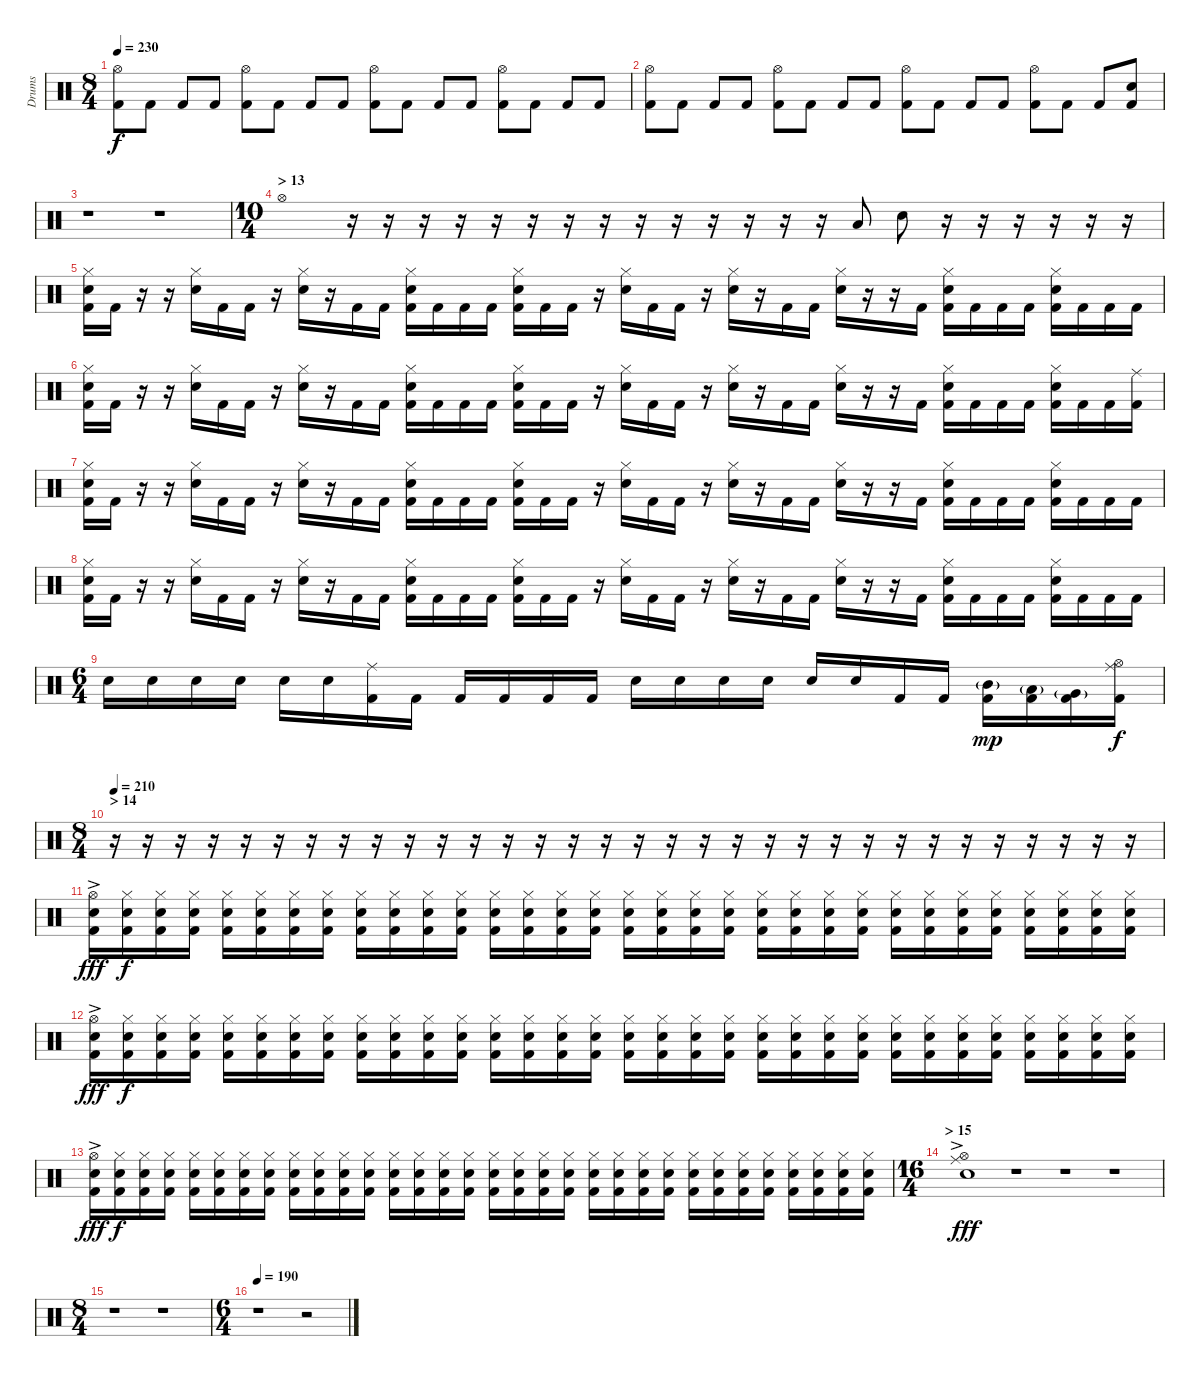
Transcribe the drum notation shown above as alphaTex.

\track ("Drums" "Drums") {instrument percussion}
\staff {score}
\articulation defaults
\ts (8 4)
\tempo 230
\clef neutral
\ks c
("Hi-Hat (open)" "Kick (hit) 2").8{dy f} "Kick (hit) 2".8 "Kick (hit) 2".8 "Kick (hit) 2".8 ("Hi-Hat (open)" "Kick (hit) 2").8 "Kick (hit) 2".8 "Kick (hit) 2".8 "Kick (hit) 2".8 ("Hi-Hat (open)" "Kick (hit) 2").8 "Kick (hit) 2".8 "Kick (hit) 2".8 "Kick (hit) 2".8 ("Hi-Hat (open)" "Kick (hit) 2").8 "Kick (hit) 2".8 "Kick (hit) 2".8 "Kick (hit) 2".8 |
("Hi-Hat (open)" "Kick (hit) 2").8 "Kick (hit) 2".8 "Kick (hit) 2".8 "Kick (hit) 2".8 ("Hi-Hat (open)" "Kick (hit) 2").8 "Kick (hit) 2".8 "Kick (hit) 2".8 "Kick (hit) 2".8 ("Hi-Hat (open)" "Kick (hit) 2").8 "Kick (hit) 2".8 "Kick (hit) 2".8 "Kick (hit) 2".8 ("Hi-Hat (open)" "Kick (hit) 2").8 "Kick (hit) 2".8 "Kick (hit) 2".8 ("Electric Snare (hit)" "Kick (hit) 2").8 |
r.1 r.1 |
\ts (10 4)
\section ("" "> 13")
"Hi-Hat (open)".1 r.16 r.16 r.16 r.16 r.16 r.16 r.16 r.16 r.16 r.16 r.16 r.16 r.16 r.16 "Low Tom (hit)".8 "Electric Snare (hit)".8 r.16 r.16 r.16 r.16 r.16 r.16 |
("Hi-Hat (closed)" "Electric Snare (hit)" "Kick (hit) 2").16 "Kick (hit) 2".16 r.16 r.16 ("Hi-Hat (closed)" "Electric Snare (hit)").16 "Kick (hit) 2".16 "Kick (hit) 2".16 r.16 ("Hi-Hat (closed)" "Electric Snare (hit)").16 r.16 "Kick (hit) 2".16 "Kick (hit) 2".16 ("Hi-Hat (closed)" "Electric Snare (hit)" "Kick (hit) 2").16 "Kick (hit) 2".16 "Kick (hit) 2".16 "Kick (hit) 2".16 ("Hi-Hat (closed)" "Electric Snare (hit)" "Kick (hit) 2").16 "Kick (hit) 2".16 "Kick (hit) 2".16 r.16 ("Hi-Hat (closed)" "Electric Snare (hit)").16 "Kick (hit) 2".16 "Kick (hit) 2".16 r.16 ("Hi-Hat (closed)" "Electric Snare (hit)").16 r.16 "Kick (hit) 2".16 "Kick (hit) 2".16 ("Hi-Hat (closed)" "Electric Snare (hit)").16 r.16 r.16 "Kick (hit) 2".16 ("Hi-Hat (closed)" "Electric Snare (hit)" "Kick (hit) 2").16 "Kick (hit) 2".16 "Kick (hit) 2".16 "Kick (hit) 2".16 ("Hi-Hat (closed)" "Electric Snare (hit)" "Kick (hit) 2").16 "Kick (hit) 2".16 "Kick (hit) 2".16 "Kick (hit) 2".16 |
("Hi-Hat (closed)" "Electric Snare (hit)" "Kick (hit) 2").16 "Kick (hit) 2".16 r.16 r.16 ("Hi-Hat (closed)" "Electric Snare (hit)").16 "Kick (hit) 2".16 "Kick (hit) 2".16 r.16 ("Hi-Hat (closed)" "Electric Snare (hit)").16 r.16 "Kick (hit) 2".16 "Kick (hit) 2".16 ("Hi-Hat (closed)" "Electric Snare (hit)" "Kick (hit) 2").16 "Kick (hit) 2".16 "Kick (hit) 2".16 "Kick (hit) 2".16 ("Hi-Hat (closed)" "Electric Snare (hit)" "Kick (hit) 2").16 "Kick (hit) 2".16 "Kick (hit) 2".16 r.16 ("Hi-Hat (closed)" "Electric Snare (hit)").16 "Kick (hit) 2".16 "Kick (hit) 2".16 r.16 ("Hi-Hat (closed)" "Electric Snare (hit)").16 r.16 "Kick (hit) 2".16 "Kick (hit) 2".16 ("Hi-Hat (closed)" "Electric Snare (hit)").16 r.16 r.16 "Kick (hit) 2".16 ("Hi-Hat (closed)" "Electric Snare (hit)" "Kick (hit) 2").16 "Kick (hit) 2".16 "Kick (hit) 2".16 "Kick (hit) 2".16 ("Hi-Hat (closed)" "Electric Snare (hit)" "Kick (hit) 2").16 "Kick (hit) 2".16 "Kick (hit) 2".16 ("Ride (middle)" "Kick (hit) 2").16 |
("Hi-Hat (closed)" "Electric Snare (hit)" "Kick (hit) 2").16 "Kick (hit) 2".16 r.16 r.16 ("Hi-Hat (closed)" "Electric Snare (hit)").16 "Kick (hit) 2".16 "Kick (hit) 2".16 r.16 ("Hi-Hat (closed)" "Electric Snare (hit)").16 r.16 "Kick (hit) 2".16 "Kick (hit) 2".16 ("Hi-Hat (closed)" "Electric Snare (hit)" "Kick (hit) 2").16 "Kick (hit) 2".16 "Kick (hit) 2".16 "Kick (hit) 2".16 ("Hi-Hat (closed)" "Electric Snare (hit)" "Kick (hit) 2").16 "Kick (hit) 2".16 "Kick (hit) 2".16 r.16 ("Hi-Hat (closed)" "Electric Snare (hit)").16 "Kick (hit) 2".16 "Kick (hit) 2".16 r.16 ("Hi-Hat (closed)" "Electric Snare (hit)").16 r.16 "Kick (hit) 2".16 "Kick (hit) 2".16 ("Hi-Hat (closed)" "Electric Snare (hit)").16 r.16 r.16 "Kick (hit) 2".16 ("Hi-Hat (closed)" "Electric Snare (hit)" "Kick (hit) 2").16 "Kick (hit) 2".16 "Kick (hit) 2".16 "Kick (hit) 2".16 ("Hi-Hat (closed)" "Electric Snare (hit)" "Kick (hit) 2").16 "Kick (hit) 2".16 "Kick (hit) 2".16 "Kick (hit) 2".16 |
("Hi-Hat (closed)" "Electric Snare (hit)" "Kick (hit) 2").16 "Kick (hit) 2".16 r.16 r.16 ("Hi-Hat (closed)" "Electric Snare (hit)").16 "Kick (hit) 2".16 "Kick (hit) 2".16 r.16 ("Hi-Hat (closed)" "Electric Snare (hit)").16 r.16 "Kick (hit) 2".16 "Kick (hit) 2".16 ("Hi-Hat (closed)" "Electric Snare (hit)" "Kick (hit) 2").16 "Kick (hit) 2".16 "Kick (hit) 2".16 "Kick (hit) 2".16 ("Hi-Hat (closed)" "Electric Snare (hit)" "Kick (hit) 2").16 "Kick (hit) 2".16 "Kick (hit) 2".16 r.16 ("Hi-Hat (closed)" "Electric Snare (hit)").16 "Kick (hit) 2".16 "Kick (hit) 2".16 r.16 ("Hi-Hat (closed)" "Electric Snare (hit)").16 r.16 "Kick (hit) 2".16 "Kick (hit) 2".16 ("Hi-Hat (closed)" "Electric Snare (hit)").16 r.16 r.16 "Kick (hit) 2".16 ("Hi-Hat (closed)" "Electric Snare (hit)" "Kick (hit) 2").16 "Kick (hit) 2".16 "Kick (hit) 2".16 "Kick (hit) 2".16 ("Hi-Hat (closed)" "Electric Snare (hit)" "Kick (hit) 2").16 "Kick (hit) 2".16 "Kick (hit) 2".16 "Kick (hit) 2".16 |
\ts (6 4)
"Electric Snare (hit)".16 "Electric Snare (hit)".16 "Electric Snare (hit)".16 "Electric Snare (hit)".16 "Electric Snare (hit)".16 "Electric Snare (hit)".16 ("Ride (middle)" "Kick (hit) 2").16 "Kick (hit) 2".16 "Kick (hit) 2".16 "Kick (hit) 2".16 "Kick (hit) 2".16 "Kick (hit) 2".16 "Electric Snare (hit)".16 "Electric Snare (hit)".16 "Electric Snare (hit)".16 "Electric Snare (hit)".16 "Electric Snare (hit)".16 "Electric Snare (hit)".16 "Kick (hit) 2".16 "Kick (hit) 2".16 ("Mid Tom (hit)"{g} "Kick (hit) 2").16{dy mp} ("Low Tom (hit)"{g} "Kick (hit) 2").16 ("Very Low Tom (hit)"{g} "Kick (hit) 2").16 ("Hi-Hat (open)" "Ride (middle)" "Kick (hit) 2").16{dy f} |
\ts (8 4)
\section ("" "> 14")
\tempo 210
r.16 r.16 r.16 r.16 r.16 r.16 r.16 r.16 r.16 r.16 r.16 r.16 r.16 r.16 r.16 r.16 r.16 r.16 r.16 r.16 r.16 r.16 r.16 r.16 r.16 r.16 r.16 r.16 r.16 r.16 r.16 r.16 |
("Hi-Hat (open)"{ac} "Electric Snare (hit)" "Kick (hit) 2").16{dy fff} ("Hi-Hat (closed)" "Electric Snare (hit)" "Kick (hit) 2").16{dy f} ("Hi-Hat (closed)" "Electric Snare (hit)" "Kick (hit) 2").16 ("Hi-Hat (closed)" "Electric Snare (hit)" "Kick (hit) 2").16 ("Hi-Hat (closed)" "Electric Snare (hit)" "Kick (hit) 2").16 ("Hi-Hat (closed)" "Electric Snare (hit)" "Kick (hit) 2").16 ("Hi-Hat (closed)" "Electric Snare (hit)" "Kick (hit) 2").16 ("Hi-Hat (closed)" "Electric Snare (hit)" "Kick (hit) 2").16 ("Hi-Hat (closed)" "Electric Snare (hit)" "Kick (hit) 2").16 ("Hi-Hat (closed)" "Electric Snare (hit)" "Kick (hit) 2").16 ("Hi-Hat (closed)" "Electric Snare (hit)" "Kick (hit) 2").16 ("Hi-Hat (closed)" "Electric Snare (hit)" "Kick (hit) 2").16 ("Hi-Hat (closed)" "Electric Snare (hit)" "Kick (hit) 2").16 ("Hi-Hat (closed)" "Electric Snare (hit)" "Kick (hit) 2").16 ("Hi-Hat (closed)" "Electric Snare (hit)" "Kick (hit) 2").16 ("Hi-Hat (closed)" "Electric Snare (hit)" "Kick (hit) 2").16 ("Hi-Hat (closed)" "Electric Snare (hit)" "Kick (hit) 2").16 ("Hi-Hat (closed)" "Electric Snare (hit)" "Kick (hit) 2").16 ("Hi-Hat (closed)" "Electric Snare (hit)" "Kick (hit) 2").16 ("Hi-Hat (closed)" "Electric Snare (hit)" "Kick (hit) 2").16 ("Hi-Hat (closed)" "Electric Snare (hit)" "Kick (hit) 2").16 ("Hi-Hat (closed)" "Electric Snare (hit)" "Kick (hit) 2").16 ("Hi-Hat (closed)" "Electric Snare (hit)" "Kick (hit) 2").16 ("Hi-Hat (closed)" "Electric Snare (hit)" "Kick (hit) 2").16 ("Hi-Hat (closed)" "Electric Snare (hit)" "Kick (hit) 2").16 ("Hi-Hat (closed)" "Electric Snare (hit)" "Kick (hit) 2").16 ("Hi-Hat (closed)" "Electric Snare (hit)" "Kick (hit) 2").16 ("Hi-Hat (closed)" "Electric Snare (hit)" "Kick (hit) 2").16 ("Hi-Hat (closed)" "Electric Snare (hit)" "Kick (hit) 2").16 ("Hi-Hat (closed)" "Electric Snare (hit)" "Kick (hit) 2").16 ("Hi-Hat (closed)" "Electric Snare (hit)" "Kick (hit) 2").16 ("Hi-Hat (closed)" "Electric Snare (hit)" "Kick (hit) 2").16 |
("Hi-Hat (open)"{ac} "Electric Snare (hit)" "Kick (hit) 2").16{dy fff} ("Hi-Hat (closed)" "Electric Snare (hit)" "Kick (hit) 2").16{dy f} ("Hi-Hat (closed)" "Electric Snare (hit)" "Kick (hit) 2").16 ("Hi-Hat (closed)" "Electric Snare (hit)" "Kick (hit) 2").16 ("Hi-Hat (closed)" "Electric Snare (hit)" "Kick (hit) 2").16 ("Hi-Hat (closed)" "Electric Snare (hit)" "Kick (hit) 2").16 ("Hi-Hat (closed)" "Electric Snare (hit)" "Kick (hit) 2").16 ("Hi-Hat (closed)" "Electric Snare (hit)" "Kick (hit) 2").16 ("Hi-Hat (closed)" "Electric Snare (hit)" "Kick (hit) 2").16 ("Hi-Hat (closed)" "Electric Snare (hit)" "Kick (hit) 2").16 ("Hi-Hat (closed)" "Electric Snare (hit)" "Kick (hit) 2").16 ("Hi-Hat (closed)" "Electric Snare (hit)" "Kick (hit) 2").16 ("Hi-Hat (closed)" "Electric Snare (hit)" "Kick (hit) 2").16 ("Hi-Hat (closed)" "Electric Snare (hit)" "Kick (hit) 2").16 ("Hi-Hat (closed)" "Electric Snare (hit)" "Kick (hit) 2").16 ("Hi-Hat (closed)" "Electric Snare (hit)" "Kick (hit) 2").16 ("Hi-Hat (closed)" "Electric Snare (hit)" "Kick (hit) 2").16 ("Hi-Hat (closed)" "Electric Snare (hit)" "Kick (hit) 2").16 ("Hi-Hat (closed)" "Electric Snare (hit)" "Kick (hit) 2").16 ("Hi-Hat (closed)" "Electric Snare (hit)" "Kick (hit) 2").16 ("Hi-Hat (closed)" "Electric Snare (hit)" "Kick (hit) 2").16 ("Hi-Hat (closed)" "Electric Snare (hit)" "Kick (hit) 2").16 ("Hi-Hat (closed)" "Electric Snare (hit)" "Kick (hit) 2").16 ("Hi-Hat (closed)" "Electric Snare (hit)" "Kick (hit) 2").16 ("Hi-Hat (closed)" "Electric Snare (hit)" "Kick (hit) 2").16 ("Hi-Hat (closed)" "Electric Snare (hit)" "Kick (hit) 2").16 ("Hi-Hat (closed)" "Electric Snare (hit)" "Kick (hit) 2").16 ("Hi-Hat (closed)" "Electric Snare (hit)" "Kick (hit) 2").16 ("Hi-Hat (closed)" "Electric Snare (hit)" "Kick (hit) 2").16 ("Hi-Hat (closed)" "Electric Snare (hit)" "Kick (hit) 2").16 ("Hi-Hat (closed)" "Electric Snare (hit)" "Kick (hit) 2").16 ("Hi-Hat (closed)" "Electric Snare (hit)" "Kick (hit) 2").16 |
("Hi-Hat (open)"{ac} "Electric Snare (hit)" "Kick (hit) 2").16{dy fff} ("Hi-Hat (closed)" "Electric Snare (hit)" "Kick (hit) 2").16{dy f} ("Hi-Hat (closed)" "Electric Snare (hit)" "Kick (hit) 2").16 ("Hi-Hat (closed)" "Electric Snare (hit)" "Kick (hit) 2").16 ("Hi-Hat (closed)" "Electric Snare (hit)" "Kick (hit) 2").16 ("Hi-Hat (closed)" "Electric Snare (hit)" "Kick (hit) 2").16 ("Hi-Hat (closed)" "Electric Snare (hit)" "Kick (hit) 2").16 ("Hi-Hat (closed)" "Electric Snare (hit)" "Kick (hit) 2").16 ("Hi-Hat (closed)" "Electric Snare (hit)" "Kick (hit) 2").16 ("Hi-Hat (closed)" "Electric Snare (hit)" "Kick (hit) 2").16 ("Hi-Hat (closed)" "Electric Snare (hit)" "Kick (hit) 2").16 ("Hi-Hat (closed)" "Electric Snare (hit)" "Kick (hit) 2").16 ("Hi-Hat (closed)" "Electric Snare (hit)" "Kick (hit) 2").16 ("Hi-Hat (closed)" "Electric Snare (hit)" "Kick (hit) 2").16 ("Hi-Hat (closed)" "Electric Snare (hit)" "Kick (hit) 2").16 ("Hi-Hat (closed)" "Electric Snare (hit)" "Kick (hit) 2").16 ("Hi-Hat (closed)" "Electric Snare (hit)" "Kick (hit) 2").16 ("Hi-Hat (closed)" "Electric Snare (hit)" "Kick (hit) 2").16 ("Hi-Hat (closed)" "Electric Snare (hit)" "Kick (hit) 2").16 ("Hi-Hat (closed)" "Electric Snare (hit)" "Kick (hit) 2").16 ("Hi-Hat (closed)" "Electric Snare (hit)" "Kick (hit) 2").16 ("Hi-Hat (closed)" "Electric Snare (hit)" "Kick (hit) 2").16 ("Hi-Hat (closed)" "Electric Snare (hit)" "Kick (hit) 2").16 ("Hi-Hat (closed)" "Electric Snare (hit)" "Kick (hit) 2").16 ("Hi-Hat (closed)" "Electric Snare (hit)" "Kick (hit) 2").16 ("Hi-Hat (closed)" "Electric Snare (hit)" "Kick (hit) 2").16 ("Hi-Hat (closed)" "Electric Snare (hit)" "Kick (hit) 2").16 ("Hi-Hat (closed)" "Electric Snare (hit)" "Kick (hit) 2").16 ("Hi-Hat (closed)" "Electric Snare (hit)" "Kick (hit) 2").16 ("Hi-Hat (closed)" "Electric Snare (hit)" "Kick (hit) 2").16 ("Hi-Hat (closed)" "Electric Snare (hit)" "Kick (hit) 2").16 ("Hi-Hat (closed)" "Electric Snare (hit)" "Kick (hit) 2").16 |
\ts (16 4)
\section ("" "> 15")
("Hi-Hat (open)"{ac} "Electric Snare (hit)" "Ride (middle)").1{dy fff} r.1 r.1 r.1 |
\ts (8 4)
r.1 r.1 |
\ts (6 4)
\tempo 190
r.1 r.2
